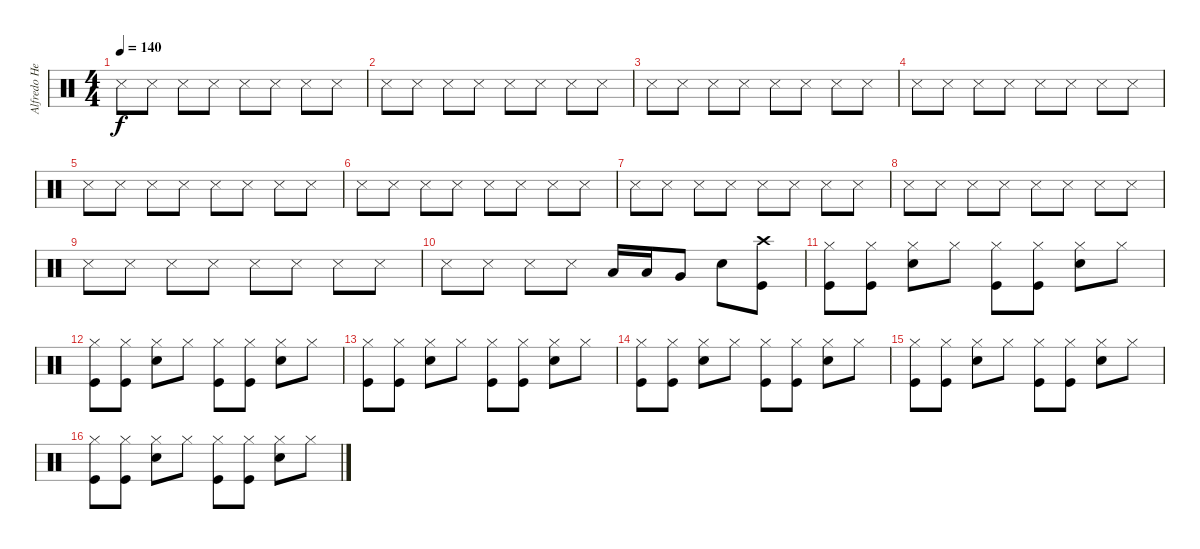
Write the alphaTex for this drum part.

\track ("Alfredo Hernandez - Percussion" "Alfredo He") {instrument percussion}
\staff {score}
\articulation defaults
\ts (4 4)
\tempo 140
\clef neutral
\ks c "Snare (side stick) 3".8{dy f} "Snare (side stick) 3".8{volume 10} "Snare (side stick) 3".8{volume 13} "Snare (side stick) 3".8{volume 10} "Snare (side stick) 3".8{volume 13} "Snare (side stick) 3".8{volume 10} "Snare (side stick) 3".8{volume 13} "Snare (side stick) 3".8{volume 10}
|
"Snare (side stick) 3".8{volume 13} "Snare (side stick) 3".8{volume 10} "Snare (side stick) 3".8{volume 13} "Snare (side stick) 3".8{volume 10} "Snare (side stick) 3".8{volume 13} "Snare (side stick) 3".8{volume 10} "Snare (side stick) 3".8{volume 13} "Snare (side stick) 3".8{volume 10} |
"Snare (side stick) 3".8{volume 13} "Snare (side stick) 3".8{volume 10} "Snare (side stick) 3".8{volume 13} "Snare (side stick) 3".8{volume 10} "Snare (side stick) 3".8{volume 13} "Snare (side stick) 3".8{volume 10} "Snare (side stick) 3".8{volume 13} "Snare (side stick) 3".8{volume 10} |
"Snare (side stick) 3".8{volume 13} "Snare (side stick) 3".8{volume 10} "Snare (side stick) 3".8{volume 13} "Snare (side stick) 3".8{volume 10} "Snare (side stick) 3".8{volume 13} "Snare (side stick) 3".8{volume 10} "Snare (side stick) 3".8{volume 13} "Snare (side stick) 3".8{volume 10} |
"Snare (side stick) 3".8{volume 13} "Snare (side stick) 3".8{volume 10} "Snare (side stick) 3".8{volume 13} "Snare (side stick) 3".8{volume 10} "Snare (side stick) 3".8{volume 13} "Snare (side stick) 3".8{volume 10} "Snare (side stick) 3".8{volume 13} "Snare (side stick) 3".8{volume 10} |
"Snare (side stick) 3".8{volume 13} "Snare (side stick) 3".8{volume 10} "Snare (side stick) 3".8{volume 13} "Snare (side stick) 3".8{volume 10} "Snare (side stick) 3".8{volume 13} "Snare (side stick) 3".8{volume 10} "Snare (side stick) 3".8{volume 13} "Snare (side stick) 3".8{volume 10} |
"Snare (side stick) 3".8{volume 13} "Snare (side stick) 3".8{volume 10} "Snare (side stick) 3".8{volume 13} "Snare (side stick) 3".8{volume 10} "Snare (side stick) 3".8{volume 13} "Snare (side stick) 3".8{volume 10} "Snare (side stick) 3".8{volume 13} "Snare (side stick) 3".8{volume 10} |
"Snare (side stick) 3".8{volume 13} "Snare (side stick) 3".8{volume 10} "Snare (side stick) 3".8{volume 13} "Snare (side stick) 3".8{volume 10} "Snare (side stick) 3".8{volume 13} "Snare (side stick) 3".8{volume 10} "Snare (side stick) 3".8{volume 13} "Snare (side stick) 3".8{volume 10} |
"Snare (side stick) 3".8{volume 13} "Snare (side stick) 3".8{volume 10} "Snare (side stick) 3".8{volume 13} "Snare (side stick) 3".8{volume 10} "Snare (side stick) 3".8{volume 13} "Snare (side stick) 3".8{volume 10} "Snare (side stick) 3".8{volume 13} "Snare (side stick) 3".8{volume 10} |
"Snare (side stick) 3".8{volume 13} "Snare (side stick) 3".8{volume 10} "Snare (side stick) 3".8{volume 13} "Snare (side stick) 3".8{volume 10} "Low Tom (hit)".16{volume 13 balance 8} "Low Tom (hit)".16 "Very Low Tom (hit)".8 "Snare (hit) 2".8 ("Kick (hit)" "Crash high (hit)").8 |
("Kick (hit)" "Hi-Hat (closed)").8 ("Kick (hit)" "Hi-Hat (closed)").8 ("Snare (hit) 2" "Hi-Hat (closed)").8 "Hi-Hat (closed)".8 ("Kick (hit)" "Hi-Hat (closed)").8 ("Kick (hit)" "Hi-Hat (closed)").8 ("Snare (hit) 2" "Hi-Hat (closed)").8 "Hi-Hat (closed)".8 |
("Kick (hit)" "Hi-Hat (closed)").8 ("Kick (hit)" "Hi-Hat (closed)").8 ("Snare (hit) 2" "Hi-Hat (closed)").8 "Hi-Hat (closed)".8 ("Kick (hit)" "Hi-Hat (closed)").8 ("Kick (hit)" "Hi-Hat (closed)").8 ("Snare (hit) 2" "Hi-Hat (closed)").8 "Hi-Hat (closed)".8 |
("Kick (hit)" "Hi-Hat (closed)").8 ("Kick (hit)" "Hi-Hat (closed)").8 ("Snare (hit) 2" "Hi-Hat (closed)").8 "Hi-Hat (closed)".8 ("Kick (hit)" "Hi-Hat (closed)").8 ("Kick (hit)" "Hi-Hat (closed)").8 ("Snare (hit) 2" "Hi-Hat (closed)").8 "Hi-Hat (closed)".8 |
("Kick (hit)" "Hi-Hat (closed)").8 ("Kick (hit)" "Hi-Hat (closed)").8 ("Snare (hit) 2" "Hi-Hat (closed)").8 "Hi-Hat (closed)".8 ("Kick (hit)" "Hi-Hat (closed)").8 ("Kick (hit)" "Hi-Hat (closed)").8 ("Snare (hit) 2" "Hi-Hat (closed)").8 "Hi-Hat (closed)".8 |
("Kick (hit)" "Hi-Hat (closed)").8 ("Kick (hit)" "Hi-Hat (closed)").8 ("Snare (hit) 2" "Hi-Hat (closed)").8 "Hi-Hat (closed)".8 ("Kick (hit)" "Hi-Hat (closed)").8 ("Kick (hit)" "Hi-Hat (closed)").8 ("Snare (hit) 2" "Hi-Hat (closed)").8 "Hi-Hat (closed)".8 |
("Kick (hit)" "Hi-Hat (closed)").8 ("Kick (hit)" "Hi-Hat (closed)").8 ("Snare (hit) 2" "Hi-Hat (closed)").8 "Hi-Hat (closed)".8 ("Kick (hit)" "Hi-Hat (closed)").8 ("Kick (hit)" "Hi-Hat (closed)").8 ("Snare (hit) 2" "Hi-Hat (closed)").8 "Hi-Hat (closed)".8
